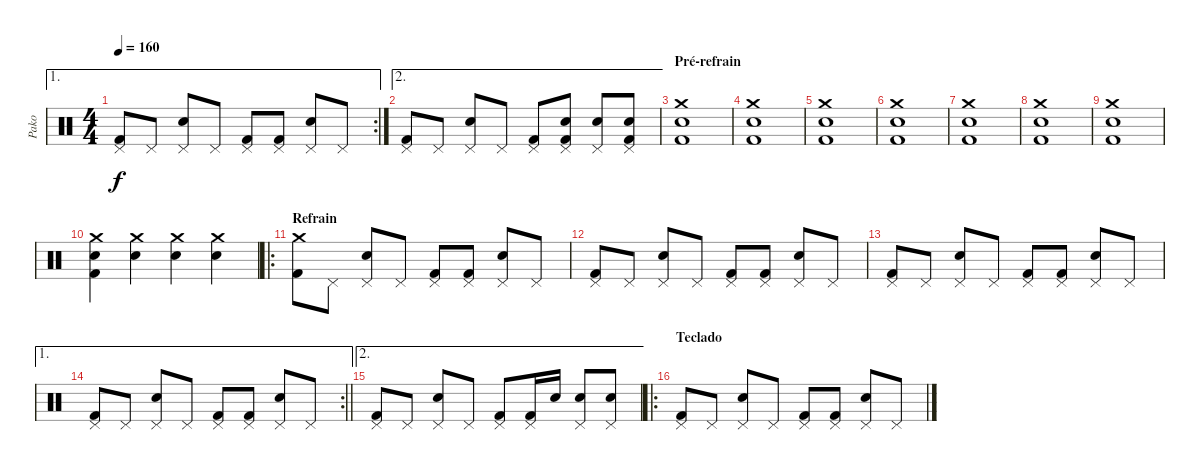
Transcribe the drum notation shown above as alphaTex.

\track ("Pako" "Pako") {instrument percussion}
\staff {score}
\articulation defaults
\ae 1
\rc 2
\ts (4 4)
\tempo 160
\clef neutral
\ks c
("Pedal Hi-Hat (hit)" "Kick (hit) 2").8{dy f} "Pedal Hi-Hat (hit)".8 ("Pedal Hi-Hat (hit)" "Snare (hit) 2").8 "Pedal Hi-Hat (hit)".8 ("Pedal Hi-Hat (hit)" "Kick (hit) 2").8 ("Pedal Hi-Hat (hit)" "Kick (hit) 2").8 ("Pedal Hi-Hat (hit)" "Snare (hit) 2").8 "Pedal Hi-Hat (hit)".8 |
\ae 2
("Pedal Hi-Hat (hit)" "Kick (hit) 2").8 "Pedal Hi-Hat (hit)".8 ("Pedal Hi-Hat (hit)" "Snare (hit) 2").8 "Pedal Hi-Hat (hit)".8 ("Pedal Hi-Hat (hit)" "Kick (hit) 2").8 ("Pedal Hi-Hat (hit)" "Snare (hit) 2" "Kick (hit) 2").8 ("Pedal Hi-Hat (hit)" "Snare (hit) 2").8 ("Pedal Hi-Hat (hit)" "Snare (hit) 2" "Kick (hit) 2").8 |
\section ("" "Pré-refrain")
("Crash medium (hit)" "Snare (hit) 2" "Kick (hit) 2").1 |
("Crash medium (hit)" "Snare (hit) 2" "Kick (hit) 2").1 |
("Crash medium (hit)" "Snare (hit) 2" "Kick (hit) 2").1 |
("Crash medium (hit)" "Snare (hit) 2" "Kick (hit) 2").1 |
("Crash medium (hit)" "Snare (hit) 2" "Kick (hit) 2").1 |
("Crash medium (hit)" "Snare (hit) 2" "Kick (hit) 2").1 |
("Crash medium (hit)" "Snare (hit) 2" "Kick (hit) 2").1 |
("Crash medium (hit)" "Snare (hit) 2" "Kick (hit) 2").4 ("Crash medium (hit)" "Snare (hit) 2").4 ("Crash medium (hit)" "Snare (hit) 2").4 ("Crash medium (hit)" "Snare (hit) 2").4 |
\ro
\section ("" "Refrain")
("Crash medium (hit)" "Kick (hit) 2").8 "Pedal Hi-Hat (hit)".8 ("Pedal Hi-Hat (hit)" "Snare (hit) 2").8 "Pedal Hi-Hat (hit)".8 ("Pedal Hi-Hat (hit)" "Kick (hit) 2").8 ("Pedal Hi-Hat (hit)" "Kick (hit) 2").8 ("Pedal Hi-Hat (hit)" "Snare (hit) 2").8 "Pedal Hi-Hat (hit)".8 |
("Pedal Hi-Hat (hit)" "Kick (hit) 2").8 "Pedal Hi-Hat (hit)".8 ("Pedal Hi-Hat (hit)" "Snare (hit) 2").8 "Pedal Hi-Hat (hit)".8 ("Pedal Hi-Hat (hit)" "Kick (hit) 2").8 ("Pedal Hi-Hat (hit)" "Kick (hit) 2").8 ("Pedal Hi-Hat (hit)" "Snare (hit) 2").8 "Pedal Hi-Hat (hit)".8 |
("Pedal Hi-Hat (hit)" "Kick (hit) 2").8 "Pedal Hi-Hat (hit)".8 ("Pedal Hi-Hat (hit)" "Snare (hit) 2").8 "Pedal Hi-Hat (hit)".8 ("Pedal Hi-Hat (hit)" "Kick (hit) 2").8 ("Pedal Hi-Hat (hit)" "Kick (hit) 2").8 ("Pedal Hi-Hat (hit)" "Snare (hit) 2").8 "Pedal Hi-Hat (hit)".8 |
\ae 1
\rc 2
\barLineRight lightlight
("Pedal Hi-Hat (hit)" "Kick (hit) 2").8 "Pedal Hi-Hat (hit)".8 ("Pedal Hi-Hat (hit)" "Snare (hit) 2").8 "Pedal Hi-Hat (hit)".8 ("Pedal Hi-Hat (hit)" "Kick (hit) 2").8 ("Pedal Hi-Hat (hit)" "Kick (hit) 2").8 ("Pedal Hi-Hat (hit)" "Snare (hit) 2").8 "Pedal Hi-Hat (hit)".8 |
\ae 2
("Pedal Hi-Hat (hit)" "Kick (hit) 2").8 "Pedal Hi-Hat (hit)".8 ("Pedal Hi-Hat (hit)" "Snare (hit) 2").8 "Pedal Hi-Hat (hit)".8 ("Pedal Hi-Hat (hit)" "Kick (hit) 2").8 ("Pedal Hi-Hat (hit)" "Kick (hit) 2").16 "Snare (hit) 2".16 ("Pedal Hi-Hat (hit)" "Snare (hit) 2").8 ("Pedal Hi-Hat (hit)" "Snare (hit) 2").8 |
\ro
\section ("" "Teclado")
("Pedal Hi-Hat (hit)" "Kick (hit) 2").8 "Pedal Hi-Hat (hit)".8 ("Pedal Hi-Hat (hit)" "Snare (hit) 2").8 "Pedal Hi-Hat (hit)".8 ("Pedal Hi-Hat (hit)" "Kick (hit) 2").8 ("Pedal Hi-Hat (hit)" "Kick (hit) 2").8 ("Pedal Hi-Hat (hit)" "Snare (hit) 2").8 "Pedal Hi-Hat (hit)".8
